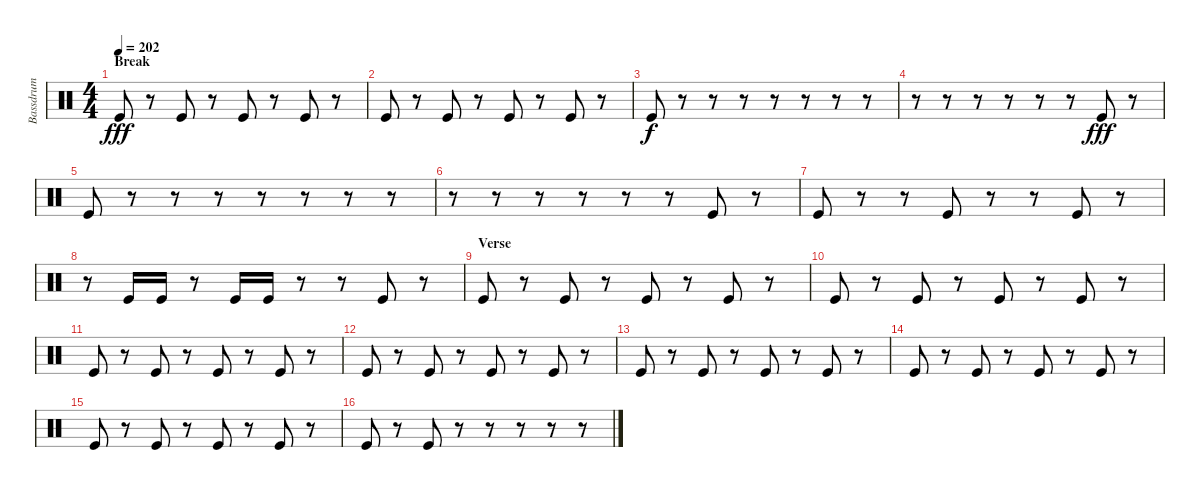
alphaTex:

\track ("Bassdrum" "Bassdrum") {instrument percussion}
\staff {score}
\articulation defaults
\ts (4 4)
\section ("" "Break")
\tempo 202
\clef neutral
\ks c "Kick (hit)".8{dy fff}
r.8 "Kick (hit)".8 r.8 "Kick (hit)".8 r.8 "Kick (hit)".8 r.8 |
"Kick (hit)".8 r.8 "Kick (hit)".8 r.8 "Kick (hit)".8 r.8 "Kick (hit)".8 r.8 |
"Kick (hit)".8{dy f} r.8 r.8 r.8 r.8 r.8 r.8 r.8 |
r.8 r.8 r.8 r.8 r.8 r.8 "Kick (hit)".8{dy fff} r.8 |
"Kick (hit)".8 r.8 r.8 r.8 r.8 r.8 r.8 r.8 |
r.8 r.8 r.8 r.8 r.8 r.8 "Kick (hit)".8 r.8 |
"Kick (hit)".8 r.8 r.8 "Kick (hit)".8 r.8 r.8 "Kick (hit)".8 r.8 |
r.8 "Kick (hit)".16 "Kick (hit)".16 r.8 "Kick (hit)".16 "Kick (hit)".16 r.8 r.8 "Kick (hit)".8 r.8 |
\section ("" "Verse")
"Kick (hit)".8 r.8 "Kick (hit)".8 r.8 "Kick (hit)".8 r.8 "Kick (hit)".8 r.8 |
"Kick (hit)".8 r.8 "Kick (hit)".8 r.8 "Kick (hit)".8 r.8 "Kick (hit)".8 r.8 |
"Kick (hit)".8 r.8 "Kick (hit)".8 r.8 "Kick (hit)".8 r.8 "Kick (hit)".8 r.8 |
"Kick (hit)".8 r.8 "Kick (hit)".8 r.8 "Kick (hit)".8 r.8 "Kick (hit)".8 r.8 |
"Kick (hit)".8 r.8 "Kick (hit)".8 r.8 "Kick (hit)".8 r.8 "Kick (hit)".8 r.8 |
"Kick (hit)".8 r.8 "Kick (hit)".8 r.8 "Kick (hit)".8 r.8 "Kick (hit)".8 r.8 |
"Kick (hit)".8 r.8 "Kick (hit)".8 r.8 "Kick (hit)".8 r.8 "Kick (hit)".8 r.8 |
"Kick (hit)".8 r.8 "Kick (hit)".8 r.8 r.8 r.8 r.8 r.8
